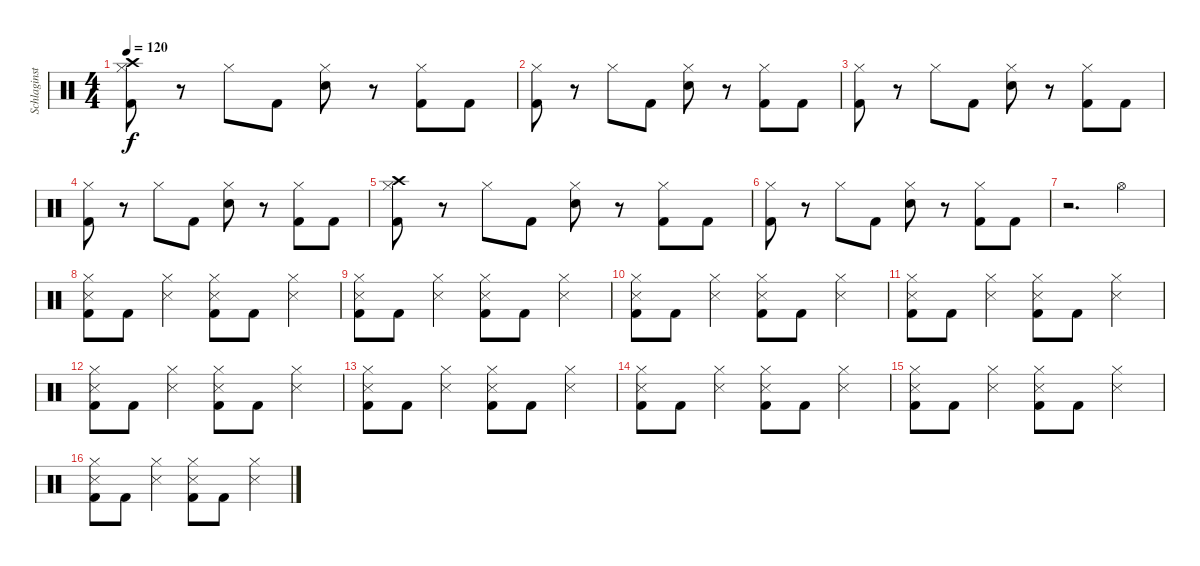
\track ("Schlaginstrumente - Auswahl" "Schlaginst") {instrument percussion}
\staff {score}
\articulation defaults
\ts (4 4)
\tempo 120
\clef neutral
\ks c
("Crash high (hit)" "Hi-Hat (closed)" "Kick (hit) 2").8{dy f} r.8 "Hi-Hat (closed)".8 "Kick (hit) 2".8 ("Hi-Hat (closed)" "Snare (hit) 2").8 r.8 ("Hi-Hat (closed)" "Kick (hit) 2").8 "Kick (hit) 2".8 |
("Hi-Hat (closed)" "Kick (hit) 2").8 r.8 "Hi-Hat (closed)".8 "Kick (hit) 2".8 ("Hi-Hat (closed)" "Snare (hit) 2").8 r.8 ("Hi-Hat (closed)" "Kick (hit) 2").8 "Kick (hit) 2".8 |
("Hi-Hat (closed)" "Kick (hit) 2").8 r.8 "Hi-Hat (closed)".8 "Kick (hit) 2".8 ("Hi-Hat (closed)" "Snare (hit) 2").8 r.8 ("Hi-Hat (closed)" "Kick (hit) 2").8 "Kick (hit) 2".8 |
("Hi-Hat (closed)" "Kick (hit) 2").8 r.8 "Hi-Hat (closed)".8 "Kick (hit) 2".8 ("Hi-Hat (closed)" "Snare (hit) 2").8 r.8 ("Hi-Hat (closed)" "Kick (hit) 2").8 "Kick (hit) 2".8 |
("Crash high (hit)" "Hi-Hat (closed)" "Kick (hit) 2").8 r.8 "Hi-Hat (closed)".8 "Kick (hit) 2".8 ("Hi-Hat (closed)" "Snare (hit) 2").8 r.8 ("Hi-Hat (closed)" "Kick (hit) 2").8 "Kick (hit) 2".8 |
("Hi-Hat (closed)" "Kick (hit) 2").8 r.8 "Hi-Hat (closed)".8 "Kick (hit) 2".8 ("Hi-Hat (closed)" "Snare (hit) 2").8 r.8 ("Hi-Hat (closed)" "Kick (hit) 2").8 "Kick (hit) 2".8 |
r.2{d} "Hi-Hat (open)".4 |
("Kick (hit) 2" "Hi-Hat (closed)" "Snare (side stick) 3").8 "Kick (hit) 2".8 ("Hi-Hat (closed)" "Snare (side stick) 3").4 ("Kick (hit) 2" "Hi-Hat (closed)" "Snare (side stick) 3").8 "Kick (hit) 2".8 ("Hi-Hat (closed)" "Snare (side stick) 3").4 |
("Kick (hit) 2" "Hi-Hat (closed)" "Snare (side stick) 3").8 "Kick (hit) 2".8 ("Hi-Hat (closed)" "Snare (side stick) 3").4 ("Kick (hit) 2" "Hi-Hat (closed)" "Snare (side stick) 3").8 "Kick (hit) 2".8 ("Hi-Hat (closed)" "Snare (side stick) 3").4 |
("Kick (hit) 2" "Hi-Hat (closed)" "Snare (side stick) 3").8 "Kick (hit) 2".8 ("Hi-Hat (closed)" "Snare (side stick) 3").4 ("Kick (hit) 2" "Hi-Hat (closed)" "Snare (side stick) 3").8 "Kick (hit) 2".8 ("Hi-Hat (closed)" "Snare (side stick) 3").4 |
("Kick (hit) 2" "Hi-Hat (closed)" "Snare (side stick) 3").8 "Kick (hit) 2".8 ("Hi-Hat (closed)" "Snare (side stick) 3").4 ("Kick (hit) 2" "Hi-Hat (closed)" "Snare (side stick) 3").8 "Kick (hit) 2".8 ("Hi-Hat (closed)" "Snare (side stick) 3").4 |
("Kick (hit) 2" "Hi-Hat (closed)" "Snare (side stick) 3").8 "Kick (hit) 2".8 ("Hi-Hat (closed)" "Snare (side stick) 3").4 ("Kick (hit) 2" "Hi-Hat (closed)" "Snare (side stick) 3").8 "Kick (hit) 2".8 ("Hi-Hat (closed)" "Snare (side stick) 3").4 |
("Kick (hit) 2" "Hi-Hat (closed)" "Snare (side stick) 3").8 "Kick (hit) 2".8 ("Hi-Hat (closed)" "Snare (side stick) 3").4 ("Kick (hit) 2" "Hi-Hat (closed)" "Snare (side stick) 3").8 "Kick (hit) 2".8 ("Hi-Hat (closed)" "Snare (side stick) 3").4 |
("Kick (hit) 2" "Hi-Hat (closed)" "Snare (side stick) 3").8 "Kick (hit) 2".8 ("Hi-Hat (closed)" "Snare (side stick) 3").4 ("Kick (hit) 2" "Hi-Hat (closed)" "Snare (side stick) 3").8 "Kick (hit) 2".8 ("Hi-Hat (closed)" "Snare (side stick) 3").4 |
("Kick (hit) 2" "Hi-Hat (closed)" "Snare (side stick) 3").8 "Kick (hit) 2".8 ("Hi-Hat (closed)" "Snare (side stick) 3").4 ("Kick (hit) 2" "Hi-Hat (closed)" "Snare (side stick) 3").8 "Kick (hit) 2".8 ("Hi-Hat (closed)" "Snare (side stick) 3").4 |
("Kick (hit) 2" "Hi-Hat (closed)" "Snare (side stick) 3").8 "Kick (hit) 2".8 ("Hi-Hat (closed)" "Snare (side stick) 3").4 ("Kick (hit) 2" "Hi-Hat (closed)" "Snare (side stick) 3").8 "Kick (hit) 2".8 ("Hi-Hat (closed)" "Snare (side stick) 3").4
